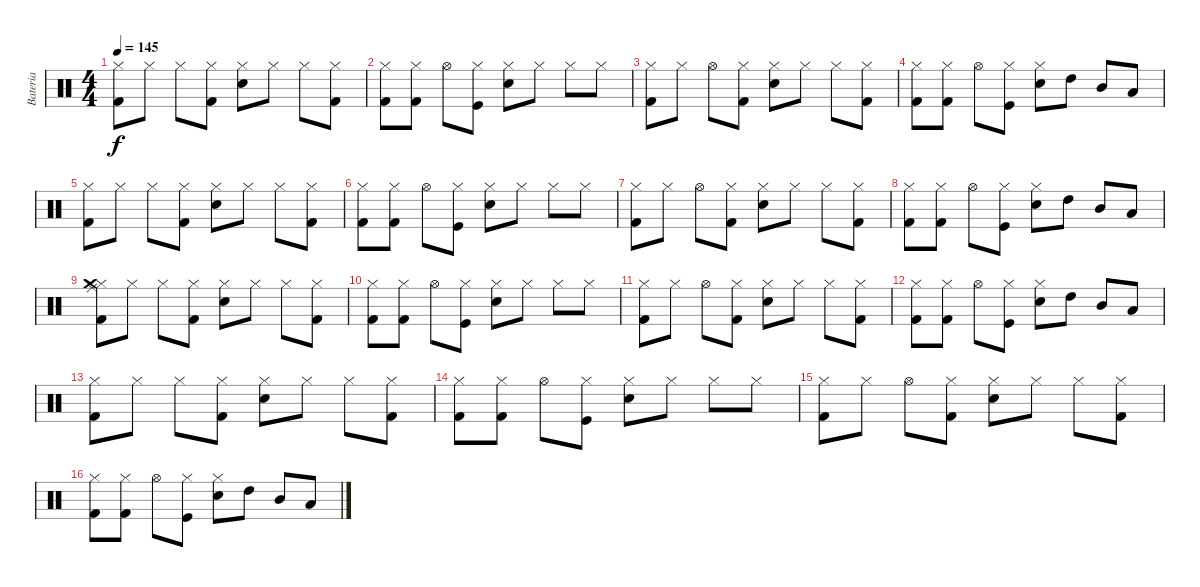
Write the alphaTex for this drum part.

\track ("Bateria" "Bateria") {instrument percussion}
\staff {score}
\articulation defaults
\ts (4 4)
\tempo 145
\clef neutral
\ks c
("Kick (hit) 2" "Hi-Hat (closed)").8{dy f} "Hi-Hat (closed)".8 "Hi-Hat (closed)".8 ("Kick (hit) 2" "Hi-Hat (closed)").8 ("Electric Snare (hit)" "Hi-Hat (closed)").8 "Hi-Hat (closed)".8 "Hi-Hat (closed)".8 ("Kick (hit) 2" "Hi-Hat (closed)").8 |
("Kick (hit) 2" "Hi-Hat (closed)").8 ("Kick (hit) 2" "Hi-Hat (closed)").8 "Hi-Hat (open)".8 ("Kick (hit)" "Hi-Hat (closed)").8 ("Electric Snare (hit)" "Hi-Hat (closed)").8 "Hi-Hat (closed)".8 "Hi-Hat (closed)".8 "Hi-Hat (closed)".8 |
("Kick (hit) 2" "Hi-Hat (closed)").8 "Hi-Hat (closed)".8 "Hi-Hat (open)".8 ("Kick (hit) 2" "Hi-Hat (closed)").8 ("Electric Snare (hit)" "Hi-Hat (closed)").8 "Hi-Hat (closed)".8 "Hi-Hat (closed)".8 ("Kick (hit) 2" "Hi-Hat (closed)").8 |
("Kick (hit) 2" "Hi-Hat (closed)").8 ("Kick (hit) 2" "Hi-Hat (closed)").8 "Hi-Hat (open)".8 ("Kick (hit)" "Hi-Hat (closed)").8 ("Electric Snare (hit)" "Hi-Hat (closed)").8 "High Tom (hit)".8 "Mid Tom (hit)".8 "Low Tom (hit)".8 |
("Kick (hit) 2" "Hi-Hat (closed)").8 "Hi-Hat (closed)".8 "Hi-Hat (closed)".8 ("Kick (hit) 2" "Hi-Hat (closed)").8 ("Electric Snare (hit)" "Hi-Hat (closed)").8 "Hi-Hat (closed)".8 "Hi-Hat (closed)".8 ("Kick (hit) 2" "Hi-Hat (closed)").8 |
("Kick (hit) 2" "Hi-Hat (closed)").8 ("Kick (hit) 2" "Hi-Hat (closed)").8 "Hi-Hat (open)".8 ("Kick (hit)" "Hi-Hat (closed)").8 ("Electric Snare (hit)" "Hi-Hat (closed)").8 "Hi-Hat (closed)".8 "Hi-Hat (closed)".8 "Hi-Hat (closed)".8 |
("Kick (hit) 2" "Hi-Hat (closed)").8 "Hi-Hat (closed)".8 "Hi-Hat (open)".8 ("Kick (hit) 2" "Hi-Hat (closed)").8 ("Electric Snare (hit)" "Hi-Hat (closed)").8 "Hi-Hat (closed)".8 "Hi-Hat (closed)".8 ("Kick (hit) 2" "Hi-Hat (closed)").8 |
("Kick (hit) 2" "Hi-Hat (closed)").8 ("Kick (hit) 2" "Hi-Hat (closed)").8 "Hi-Hat (open)".8 ("Kick (hit)" "Hi-Hat (closed)").8 ("Electric Snare (hit)" "Hi-Hat (closed)").8 "High Tom (hit)".8 "Mid Tom (hit)".8 "Low Tom (hit)".8 |
("Kick (hit) 2" "Hi-Hat (closed)" "Crash medium (hit)" "Ride (middle)").8 "Hi-Hat (closed)".8 "Hi-Hat (closed)".8 ("Kick (hit) 2" "Hi-Hat (closed)").8 ("Electric Snare (hit)" "Hi-Hat (closed)").8 "Hi-Hat (closed)".8 "Hi-Hat (closed)".8 ("Kick (hit) 2" "Hi-Hat (closed)").8 |
("Kick (hit) 2" "Hi-Hat (closed)").8 ("Kick (hit) 2" "Hi-Hat (closed)").8 "Hi-Hat (open)".8 ("Kick (hit)" "Hi-Hat (closed)").8 ("Electric Snare (hit)" "Hi-Hat (closed)").8 "Hi-Hat (closed)".8 "Hi-Hat (closed)".8 "Hi-Hat (closed)".8 |
("Kick (hit) 2" "Hi-Hat (closed)").8 "Hi-Hat (closed)".8 "Hi-Hat (open)".8 ("Kick (hit) 2" "Hi-Hat (closed)").8 ("Electric Snare (hit)" "Hi-Hat (closed)").8 "Hi-Hat (closed)".8 "Hi-Hat (closed)".8 ("Kick (hit) 2" "Hi-Hat (closed)").8 |
("Kick (hit) 2" "Hi-Hat (closed)").8 ("Kick (hit) 2" "Hi-Hat (closed)").8 "Hi-Hat (open)".8 ("Kick (hit)" "Hi-Hat (closed)").8 ("Electric Snare (hit)" "Hi-Hat (closed)").8 "High Tom (hit)".8 "Mid Tom (hit)".8 "Low Tom (hit)".8 |
("Kick (hit) 2" "Hi-Hat (closed)").8 "Hi-Hat (closed)".8 "Hi-Hat (closed)".8 ("Kick (hit) 2" "Hi-Hat (closed)").8 ("Electric Snare (hit)" "Hi-Hat (closed)").8 "Hi-Hat (closed)".8 "Hi-Hat (closed)".8 ("Kick (hit) 2" "Hi-Hat (closed)").8 |
("Kick (hit) 2" "Hi-Hat (closed)").8 ("Kick (hit) 2" "Hi-Hat (closed)").8 "Hi-Hat (open)".8 ("Kick (hit)" "Hi-Hat (closed)").8 ("Electric Snare (hit)" "Hi-Hat (closed)").8 "Hi-Hat (closed)".8 "Hi-Hat (closed)".8 "Hi-Hat (closed)".8 |
("Kick (hit) 2" "Hi-Hat (closed)").8 "Hi-Hat (closed)".8 "Hi-Hat (open)".8 ("Kick (hit) 2" "Hi-Hat (closed)").8 ("Electric Snare (hit)" "Hi-Hat (closed)").8 "Hi-Hat (closed)".8 "Hi-Hat (closed)".8 ("Kick (hit) 2" "Hi-Hat (closed)").8 |
("Kick (hit) 2" "Hi-Hat (closed)").8 ("Kick (hit) 2" "Hi-Hat (closed)").8 "Hi-Hat (open)".8 ("Kick (hit)" "Hi-Hat (closed)").8 ("Electric Snare (hit)" "Hi-Hat (closed)").8 "High Tom (hit)".8 "Mid Tom (hit)".8 "Low Tom (hit)".8
